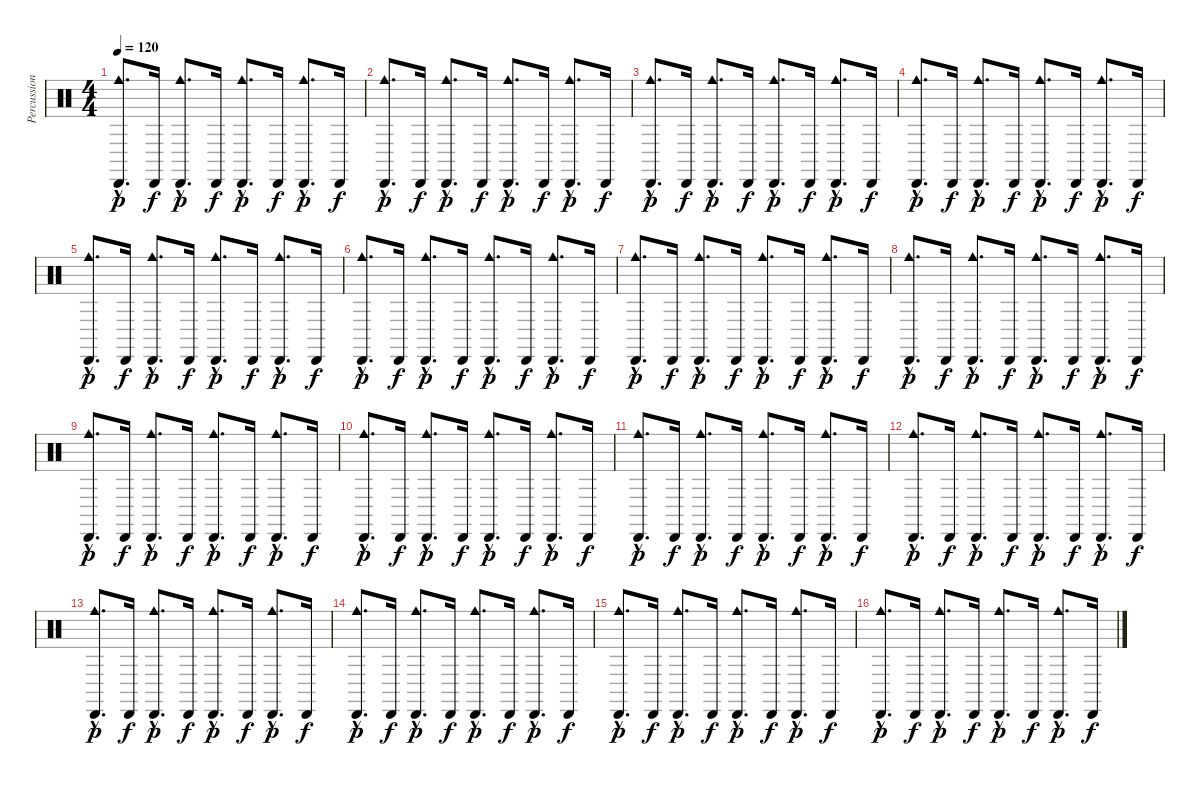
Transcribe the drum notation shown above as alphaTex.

\track ("Percussions" "Percussion") {instrument percussion}
\staff {score}
\articulation defaults
\ts (4 4)
\tempo 120
\clef neutral
\ks c
("Cabasa (hit)"{hac} "Cowbell medium (hit)"{hac}).8{d dy p} "Cabasa (hit)".16{dy f} ("Cabasa (hit)"{hac} "Cowbell medium (hit)"{hac}).8{d dy p} "Cabasa (hit)".16{dy f} ("Cabasa (hit)"{hac} "Cowbell medium (hit)"{hac}).8{d dy p} "Cabasa (hit)".16{dy f} ("Cabasa (hit)"{hac} "Cowbell medium (hit)"{hac}).8{d dy p} "Cabasa (hit)".16{dy f} |
("Cabasa (hit)"{hac} "Cowbell medium (hit)"{hac}).8{d dy p} "Cabasa (hit)".16{dy f} ("Cabasa (hit)"{hac} "Cowbell medium (hit)"{hac}).8{d dy p} "Cabasa (hit)".16{dy f} ("Cabasa (hit)"{hac} "Cowbell medium (hit)"{hac}).8{d dy p} "Cabasa (hit)".16{dy f} ("Cabasa (hit)"{hac} "Cowbell medium (hit)"{hac}).8{d dy p} "Cabasa (hit)".16{dy f} |
("Cabasa (hit)"{hac} "Cowbell medium (hit)"{hac}).8{d dy p} "Cabasa (hit)".16{dy f} ("Cabasa (hit)"{hac} "Cowbell medium (hit)"{hac}).8{d dy p} "Cabasa (hit)".16{dy f} ("Cabasa (hit)"{hac} "Cowbell medium (hit)"{hac}).8{d dy p} "Cabasa (hit)".16{dy f} ("Cabasa (hit)"{hac} "Cowbell medium (hit)"{hac}).8{d dy p} "Cabasa (hit)".16{dy f} |
("Cabasa (hit)"{hac} "Cowbell medium (hit)"{hac}).8{d dy p} "Cabasa (hit)".16{dy f} ("Cabasa (hit)"{hac} "Cowbell medium (hit)"{hac}).8{d dy p} "Cabasa (hit)".16{dy f} ("Cabasa (hit)"{hac} "Cowbell medium (hit)"{hac}).8{d dy p} "Cabasa (hit)".16{dy f} ("Cabasa (hit)"{hac} "Cowbell medium (hit)"{hac}).8{d dy p} "Cabasa (hit)".16{dy f} |
("Cabasa (hit)"{hac} "Cowbell medium (hit)"{hac}).8{d dy p} "Cabasa (hit)".16{dy f} ("Cabasa (hit)"{hac} "Cowbell medium (hit)"{hac}).8{d dy p} "Cabasa (hit)".16{dy f} ("Cabasa (hit)"{hac} "Cowbell medium (hit)"{hac}).8{d dy p} "Cabasa (hit)".16{dy f} ("Cabasa (hit)"{hac} "Cowbell medium (hit)"{hac}).8{d dy p} "Cabasa (hit)".16{dy f} |
("Cabasa (hit)"{hac} "Cowbell medium (hit)"{hac}).8{d dy p} "Cabasa (hit)".16{dy f} ("Cabasa (hit)"{hac} "Cowbell medium (hit)"{hac}).8{d dy p} "Cabasa (hit)".16{dy f} ("Cabasa (hit)"{hac} "Cowbell medium (hit)"{hac}).8{d dy p} "Cabasa (hit)".16{dy f} ("Cabasa (hit)"{hac} "Cowbell medium (hit)"{hac}).8{d dy p} "Cabasa (hit)".16{dy f} |
("Cabasa (hit)"{hac} "Cowbell medium (hit)"{hac}).8{d dy p} "Cabasa (hit)".16{dy f} ("Cabasa (hit)"{hac} "Cowbell medium (hit)"{hac}).8{d dy p} "Cabasa (hit)".16{dy f} ("Cabasa (hit)"{hac} "Cowbell medium (hit)"{hac}).8{d dy p} "Cabasa (hit)".16{dy f} ("Cabasa (hit)"{hac} "Cowbell medium (hit)"{hac}).8{d dy p} "Cabasa (hit)".16{dy f} |
("Cabasa (hit)"{hac} "Cowbell medium (hit)"{hac}).8{d dy p} "Cabasa (hit)".16{dy f} ("Cabasa (hit)"{hac} "Cowbell medium (hit)"{hac}).8{d dy p} "Cabasa (hit)".16{dy f} ("Cabasa (hit)"{hac} "Cowbell medium (hit)"{hac}).8{d dy p} "Cabasa (hit)".16{dy f} ("Cabasa (hit)"{hac} "Cowbell medium (hit)"{hac}).8{d dy p} "Cabasa (hit)".16{dy f} |
("Cabasa (hit)"{hac} "Cowbell medium (hit)"{hac}).8{d dy p} "Cabasa (hit)".16{dy f} ("Cabasa (hit)"{hac} "Cowbell medium (hit)"{hac}).8{d dy p} "Cabasa (hit)".16{dy f} ("Cabasa (hit)"{hac} "Cowbell medium (hit)"{hac}).8{d dy p} "Cabasa (hit)".16{dy f} ("Cabasa (hit)"{hac} "Cowbell medium (hit)"{hac}).8{d dy p} "Cabasa (hit)".16{dy f} |
("Cabasa (hit)"{hac} "Cowbell medium (hit)"{hac}).8{d dy p} "Cabasa (hit)".16{dy f} ("Cabasa (hit)"{hac} "Cowbell medium (hit)"{hac}).8{d dy p} "Cabasa (hit)".16{dy f} ("Cabasa (hit)"{hac} "Cowbell medium (hit)"{hac}).8{d dy p} "Cabasa (hit)".16{dy f} ("Cabasa (hit)"{hac} "Cowbell medium (hit)"{hac}).8{d dy p} "Cabasa (hit)".16{dy f} |
("Cabasa (hit)"{hac} "Cowbell medium (hit)"{hac}).8{d dy p} "Cabasa (hit)".16{dy f} ("Cabasa (hit)"{hac} "Cowbell medium (hit)"{hac}).8{d dy p} "Cabasa (hit)".16{dy f} ("Cabasa (hit)"{hac} "Cowbell medium (hit)"{hac}).8{d dy p} "Cabasa (hit)".16{dy f} ("Cabasa (hit)"{hac} "Cowbell medium (hit)"{hac}).8{d dy p} "Cabasa (hit)".16{dy f} |
("Cabasa (hit)"{hac} "Cowbell medium (hit)"{hac}).8{d dy p} "Cabasa (hit)".16{dy f} ("Cabasa (hit)"{hac} "Cowbell medium (hit)"{hac}).8{d dy p} "Cabasa (hit)".16{dy f} ("Cabasa (hit)"{hac} "Cowbell medium (hit)"{hac}).8{d dy p} "Cabasa (hit)".16{dy f} ("Cabasa (hit)"{hac} "Cowbell medium (hit)"{hac}).8{d dy p} "Cabasa (hit)".16{dy f} |
("Cabasa (hit)"{hac} "Cowbell medium (hit)"{hac}).8{d dy p} "Cabasa (hit)".16{dy f} ("Cabasa (hit)"{hac} "Cowbell medium (hit)"{hac}).8{d dy p} "Cabasa (hit)".16{dy f} ("Cabasa (hit)"{hac} "Cowbell medium (hit)"{hac}).8{d dy p} "Cabasa (hit)".16{dy f} ("Cabasa (hit)"{hac} "Cowbell medium (hit)"{hac}).8{d dy p} "Cabasa (hit)".16{dy f} |
("Cabasa (hit)"{hac} "Cowbell medium (hit)"{hac}).8{d dy p} "Cabasa (hit)".16{dy f} ("Cabasa (hit)"{hac} "Cowbell medium (hit)"{hac}).8{d dy p} "Cabasa (hit)".16{dy f} ("Cabasa (hit)"{hac} "Cowbell medium (hit)"{hac}).8{d dy p} "Cabasa (hit)".16{dy f} ("Cabasa (hit)"{hac} "Cowbell medium (hit)"{hac}).8{d dy p} "Cabasa (hit)".16{dy f} |
("Cabasa (hit)"{hac} "Cowbell medium (hit)"{hac}).8{d dy p} "Cabasa (hit)".16{dy f} ("Cabasa (hit)"{hac} "Cowbell medium (hit)"{hac}).8{d dy p} "Cabasa (hit)".16{dy f} ("Cabasa (hit)"{hac} "Cowbell medium (hit)"{hac}).8{d dy p} "Cabasa (hit)".16{dy f} ("Cabasa (hit)"{hac} "Cowbell medium (hit)"{hac}).8{d dy p} "Cabasa (hit)".16{dy f} |
("Cabasa (hit)"{hac} "Cowbell medium (hit)"{hac}).8{d dy p} "Cabasa (hit)".16{dy f} ("Cabasa (hit)"{hac} "Cowbell medium (hit)"{hac}).8{d dy p} "Cabasa (hit)".16{dy f} ("Cabasa (hit)"{hac} "Cowbell medium (hit)"{hac}).8{d dy p} "Cabasa (hit)".16{dy f} ("Cabasa (hit)"{hac} "Cowbell medium (hit)"{hac}).8{d dy p} "Cabasa (hit)".16{dy f}
